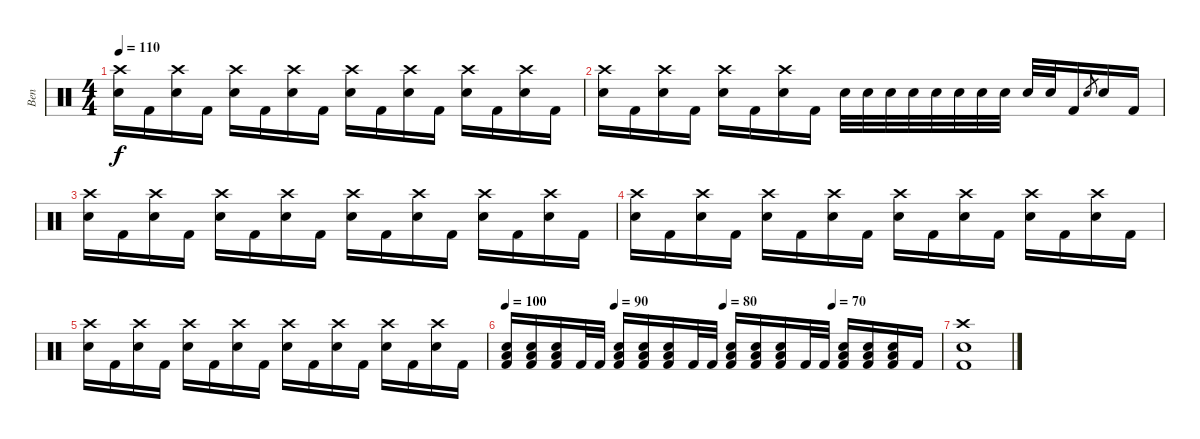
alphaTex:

\track ("Ben" "Ben") {instrument percussion}
\staff {score}
\articulation defaults
\ts (4 4)
\tempo 110
\clef neutral
\ks c
("Crash high (hit)" "Snare (hit) 2").16{dy f} "Kick (hit) 2".16 ("Crash high (hit)" "Snare (hit) 2").16 "Kick (hit) 2".16 ("Crash high (hit)" "Snare (hit) 2").16 "Kick (hit) 2".16 ("Crash high (hit)" "Snare (hit) 2").16 "Kick (hit) 2".16 ("Crash high (hit)" "Snare (hit) 2").16 "Kick (hit) 2".16 ("Crash high (hit)" "Snare (hit) 2").16 "Kick (hit) 2".16 ("Crash high (hit)" "Snare (hit) 2").16 "Kick (hit) 2".16 ("Crash high (hit)" "Snare (hit) 2").16 "Kick (hit) 2".16 |
("Crash high (hit)" "Snare (hit) 2").16 "Kick (hit) 2".16 ("Crash high (hit)" "Snare (hit) 2").16 "Kick (hit) 2".16 ("Crash high (hit)" "Snare (hit) 2").16 "Kick (hit) 2".16 ("Crash high (hit)" "Snare (hit) 2").16 "Kick (hit) 2".16 "Snare (hit) 2".32 "Snare (hit) 2".32 "Snare (hit) 2".32 "Snare (hit) 2".32 "Snare (hit) 2".32 "Snare (hit) 2".32 "Snare (hit) 2".32 "Snare (hit) 2".32 "Snare (hit) 2".32 "Snare (hit) 2".32 "Kick (hit) 2".16 "Snare (hit) 2".8{gr} "Snare (hit) 2".16 "Kick (hit) 2".16 |
("Crash high (hit)" "Snare (hit) 2").16 "Kick (hit) 2".16 ("Crash high (hit)" "Snare (hit) 2").16 "Kick (hit) 2".16 ("Crash high (hit)" "Snare (hit) 2").16 "Kick (hit) 2".16 ("Crash high (hit)" "Snare (hit) 2").16 "Kick (hit) 2".16 ("Crash high (hit)" "Snare (hit) 2").16 "Kick (hit) 2".16 ("Crash high (hit)" "Snare (hit) 2").16 "Kick (hit) 2".16 ("Crash high (hit)" "Snare (hit) 2").16 "Kick (hit) 2".16 ("Crash high (hit)" "Snare (hit) 2").16 "Kick (hit) 2".16 |
("Crash high (hit)" "Snare (hit) 2").16 "Kick (hit) 2".16 ("Crash high (hit)" "Snare (hit) 2").16 "Kick (hit) 2".16 ("Crash high (hit)" "Snare (hit) 2").16 "Kick (hit) 2".16 ("Crash high (hit)" "Snare (hit) 2").16 "Kick (hit) 2".16 ("Crash high (hit)" "Snare (hit) 2").16 "Kick (hit) 2".16 ("Crash high (hit)" "Snare (hit) 2").16 "Kick (hit) 2".16 ("Crash high (hit)" "Snare (hit) 2").16 "Kick (hit) 2".16 ("Crash high (hit)" "Snare (hit) 2").16 "Kick (hit) 2".16 |
("Crash high (hit)" "Snare (hit) 2").16 "Kick (hit) 2".16 ("Crash high (hit)" "Snare (hit) 2").16 "Kick (hit) 2".16 ("Crash high (hit)" "Snare (hit) 2").16 "Kick (hit) 2".16 ("Crash high (hit)" "Snare (hit) 2").16 "Kick (hit) 2".16 ("Crash high (hit)" "Snare (hit) 2").16 "Kick (hit) 2".16 ("Crash high (hit)" "Snare (hit) 2").16 "Kick (hit) 2".16 ("Crash high (hit)" "Snare (hit) 2").16 "Kick (hit) 2".16 ("Crash high (hit)" "Snare (hit) 2").16 "Kick (hit) 2".16 |
\tempo 100
\tempo (90 0.25)
\tempo (80 0.5)
\tempo (70 0.75)
("Low Floor Tom (hit)" "Kick (hit) 2" "Snare (hit) 2").16 ("Low Floor Tom (hit)" "Kick (hit) 2" "Snare (hit) 2").16 ("Low Floor Tom (hit)" "Kick (hit) 2" "Snare (hit) 2").16 "Kick (hit) 2".32 "Kick (hit) 2".32 ("Low Floor Tom (hit)" "Snare (hit) 2" "Kick (hit) 2").16 ("Low Floor Tom (hit)" "Snare (hit) 2" "Kick (hit) 2").16 ("Low Floor Tom (hit)" "Snare (hit) 2" "Kick (hit) 2").16 "Kick (hit) 2".32 "Kick (hit) 2".32 ("Low Floor Tom (hit)" "Kick (hit) 2" "Snare (hit) 2").16 ("Low Floor Tom (hit)" "Kick (hit) 2" "Snare (hit) 2").16 ("Low Floor Tom (hit)" "Kick (hit) 2" "Snare (hit) 2").16 "Kick (hit) 2".32 "Kick (hit) 2".32 ("Low Floor Tom (hit)" "Kick (hit) 2" "Snare (hit) 2").16 ("Low Floor Tom (hit)" "Kick (hit) 2" "Snare (hit) 2").16 ("Low Floor Tom (hit)" "Kick (hit) 2" "Snare (hit) 2").16 "Kick (hit) 2".16 |
("Crash high (hit)" "Snare (hit) 2" "Kick (hit) 2").1
